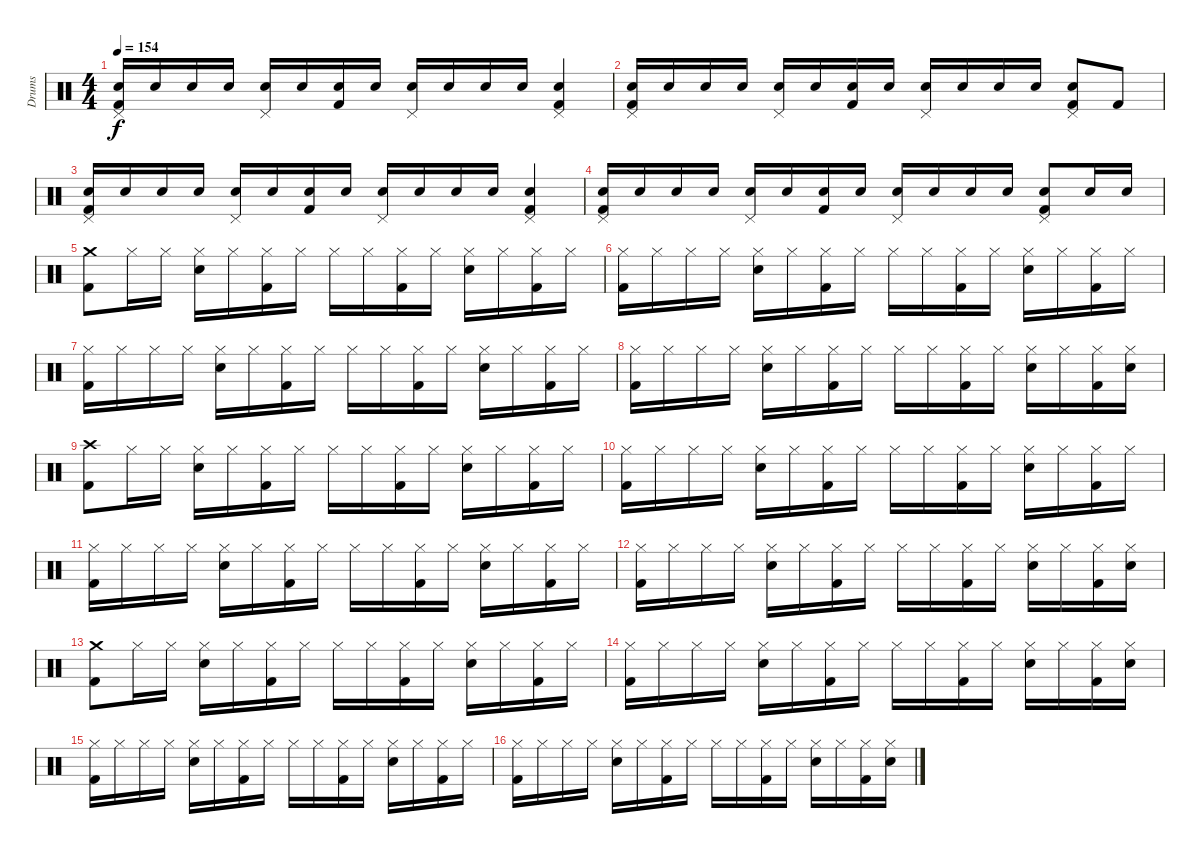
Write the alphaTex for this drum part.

\track ("Drums" "Drums") {instrument percussion}
\staff {score}
\articulation defaults
\ts (4 4)
\tempo 154
\clef neutral
\ks c
("Pedal Hi-Hat (hit)" "Electric Snare (hit)" "Kick (hit) 2").16{dy f} "Electric Snare (hit)".16 "Electric Snare (hit)".16 "Electric Snare (hit)".16 ("Pedal Hi-Hat (hit)" "Electric Snare (hit)").16 "Electric Snare (hit)".16 ("Kick (hit) 2" "Electric Snare (hit)").16 "Electric Snare (hit)".16 ("Pedal Hi-Hat (hit)" "Electric Snare (hit)").16 "Electric Snare (hit)".16 "Electric Snare (hit)".16 "Electric Snare (hit)".16 ("Kick (hit) 2" "Electric Snare (hit)" "Pedal Hi-Hat (hit)").4 |
("Pedal Hi-Hat (hit)" "Electric Snare (hit)" "Kick (hit) 2").16 "Electric Snare (hit)".16 "Electric Snare (hit)".16 "Electric Snare (hit)".16 ("Pedal Hi-Hat (hit)" "Electric Snare (hit)").16 "Electric Snare (hit)".16 ("Kick (hit) 2" "Electric Snare (hit)").16 "Electric Snare (hit)".16 ("Pedal Hi-Hat (hit)" "Electric Snare (hit)").16 "Electric Snare (hit)".16 "Electric Snare (hit)".16 "Electric Snare (hit)".16 ("Kick (hit) 2" "Electric Snare (hit)" "Pedal Hi-Hat (hit)").8 "Kick (hit) 2".8 |
("Pedal Hi-Hat (hit)" "Electric Snare (hit)" "Kick (hit) 2").16 "Electric Snare (hit)".16 "Electric Snare (hit)".16 "Electric Snare (hit)".16 ("Pedal Hi-Hat (hit)" "Electric Snare (hit)").16 "Electric Snare (hit)".16 ("Kick (hit) 2" "Electric Snare (hit)").16 "Electric Snare (hit)".16 ("Pedal Hi-Hat (hit)" "Electric Snare (hit)").16 "Electric Snare (hit)".16 "Electric Snare (hit)".16 "Electric Snare (hit)".16 ("Kick (hit) 2" "Electric Snare (hit)" "Pedal Hi-Hat (hit)").4 |
("Pedal Hi-Hat (hit)" "Electric Snare (hit)" "Kick (hit) 2").16 "Electric Snare (hit)".16 "Electric Snare (hit)".16 "Electric Snare (hit)".16 ("Pedal Hi-Hat (hit)" "Electric Snare (hit)").16 "Electric Snare (hit)".16 ("Kick (hit) 2" "Electric Snare (hit)").16 "Electric Snare (hit)".16 ("Pedal Hi-Hat (hit)" "Electric Snare (hit)").16 "Electric Snare (hit)".16 "Electric Snare (hit)".16 "Electric Snare (hit)".16 ("Kick (hit) 2" "Electric Snare (hit)" "Pedal Hi-Hat (hit)").8 "Electric Snare (hit)".16 "Electric Snare (hit)".16 |
("Crash medium (hit)" "Kick (hit) 2").8 "Hi-Hat (closed)".16 "Hi-Hat (closed)".16 ("Hi-Hat (closed)" "Electric Snare (hit)").16 "Hi-Hat (closed)".16 ("Kick (hit) 2" "Hi-Hat (closed)").16 "Hi-Hat (closed)".16 "Hi-Hat (closed)".16 "Hi-Hat (closed)".16 ("Kick (hit) 2" "Hi-Hat (closed)").16 "Hi-Hat (closed)".16 ("Electric Snare (hit)" "Hi-Hat (closed)").16 "Hi-Hat (closed)".16 ("Kick (hit) 2" "Hi-Hat (closed)").16 "Hi-Hat (closed)".16 |
("Hi-Hat (closed)" "Kick (hit) 2").16 "Hi-Hat (closed)".16 "Hi-Hat (closed)".16 "Hi-Hat (closed)".16 ("Hi-Hat (closed)" "Electric Snare (hit)").16 "Hi-Hat (closed)".16 ("Kick (hit) 2" "Hi-Hat (closed)").16 "Hi-Hat (closed)".16 "Hi-Hat (closed)".16 "Hi-Hat (closed)".16 ("Kick (hit) 2" "Hi-Hat (closed)").16 "Hi-Hat (closed)".16 ("Electric Snare (hit)" "Hi-Hat (closed)").16 "Hi-Hat (closed)".16 ("Kick (hit) 2" "Hi-Hat (closed)").16 "Hi-Hat (closed)".16 |
("Hi-Hat (closed)" "Kick (hit) 2").16 "Hi-Hat (closed)".16 "Hi-Hat (closed)".16 "Hi-Hat (closed)".16 ("Hi-Hat (closed)" "Electric Snare (hit)").16 "Hi-Hat (closed)".16 ("Kick (hit) 2" "Hi-Hat (closed)").16 "Hi-Hat (closed)".16 "Hi-Hat (closed)".16 "Hi-Hat (closed)".16 ("Kick (hit) 2" "Hi-Hat (closed)").16 "Hi-Hat (closed)".16 ("Electric Snare (hit)" "Hi-Hat (closed)").16 "Hi-Hat (closed)".16 ("Kick (hit) 2" "Hi-Hat (closed)").16 "Hi-Hat (closed)".16 |
("Hi-Hat (closed)" "Kick (hit) 2").16 "Hi-Hat (closed)".16 "Hi-Hat (closed)".16 "Hi-Hat (closed)".16 ("Hi-Hat (closed)" "Electric Snare (hit)").16 "Hi-Hat (closed)".16 ("Kick (hit) 2" "Hi-Hat (closed)").16 "Hi-Hat (closed)".16 "Hi-Hat (closed)".16 "Hi-Hat (closed)".16 ("Kick (hit) 2" "Hi-Hat (closed)").16 "Hi-Hat (closed)".16 ("Electric Snare (hit)" "Hi-Hat (closed)").16 "Hi-Hat (closed)".16 ("Kick (hit) 2" "Hi-Hat (closed)").16 ("Electric Snare (hit)" "Hi-Hat (closed)").16 |
("Crash high (hit)" "Kick (hit) 2").8 "Hi-Hat (closed)".16 "Hi-Hat (closed)".16 ("Hi-Hat (closed)" "Electric Snare (hit)").16 "Hi-Hat (closed)".16 ("Kick (hit) 2" "Hi-Hat (closed)").16 "Hi-Hat (closed)".16 "Hi-Hat (closed)".16 "Hi-Hat (closed)".16 ("Kick (hit) 2" "Hi-Hat (closed)").16 "Hi-Hat (closed)".16 ("Electric Snare (hit)" "Hi-Hat (closed)").16 "Hi-Hat (closed)".16 ("Kick (hit) 2" "Hi-Hat (closed)").16 "Hi-Hat (closed)".16 |
("Hi-Hat (closed)" "Kick (hit) 2").16 "Hi-Hat (closed)".16 "Hi-Hat (closed)".16 "Hi-Hat (closed)".16 ("Hi-Hat (closed)" "Electric Snare (hit)").16 "Hi-Hat (closed)".16 ("Kick (hit) 2" "Hi-Hat (closed)").16 "Hi-Hat (closed)".16 "Hi-Hat (closed)".16 "Hi-Hat (closed)".16 ("Kick (hit) 2" "Hi-Hat (closed)").16 "Hi-Hat (closed)".16 ("Electric Snare (hit)" "Hi-Hat (closed)").16 "Hi-Hat (closed)".16 ("Kick (hit) 2" "Hi-Hat (closed)").16 "Hi-Hat (closed)".16 |
("Hi-Hat (closed)" "Kick (hit) 2").16 "Hi-Hat (closed)".16 "Hi-Hat (closed)".16 "Hi-Hat (closed)".16 ("Hi-Hat (closed)" "Electric Snare (hit)").16 "Hi-Hat (closed)".16 ("Kick (hit) 2" "Hi-Hat (closed)").16 "Hi-Hat (closed)".16 "Hi-Hat (closed)".16 "Hi-Hat (closed)".16 ("Kick (hit) 2" "Hi-Hat (closed)").16 "Hi-Hat (closed)".16 ("Electric Snare (hit)" "Hi-Hat (closed)").16 "Hi-Hat (closed)".16 ("Kick (hit) 2" "Hi-Hat (closed)").16 "Hi-Hat (closed)".16 |
("Hi-Hat (closed)" "Kick (hit) 2").16 "Hi-Hat (closed)".16 "Hi-Hat (closed)".16 "Hi-Hat (closed)".16 ("Hi-Hat (closed)" "Electric Snare (hit)").16 "Hi-Hat (closed)".16 ("Kick (hit) 2" "Hi-Hat (closed)").16 "Hi-Hat (closed)".16 "Hi-Hat (closed)".16 "Hi-Hat (closed)".16 ("Kick (hit) 2" "Hi-Hat (closed)").16 "Hi-Hat (closed)".16 ("Electric Snare (hit)" "Hi-Hat (closed)").16 "Hi-Hat (closed)".16 ("Kick (hit) 2" "Hi-Hat (closed)").16 ("Electric Snare (hit)" "Hi-Hat (closed)").16 |
("Crash medium (hit)" "Kick (hit) 2").8 "Hi-Hat (closed)".16 "Hi-Hat (closed)".16 ("Hi-Hat (closed)" "Electric Snare (hit)").16 "Hi-Hat (closed)".16 ("Kick (hit) 2" "Hi-Hat (closed)").16 "Hi-Hat (closed)".16 "Hi-Hat (closed)".16 "Hi-Hat (closed)".16 ("Kick (hit) 2" "Hi-Hat (closed)").16 "Hi-Hat (closed)".16 ("Electric Snare (hit)" "Hi-Hat (closed)").16 "Hi-Hat (closed)".16 ("Kick (hit) 2" "Hi-Hat (closed)").16 "Hi-Hat (closed)".16 |
("Hi-Hat (closed)" "Kick (hit) 2").16 "Hi-Hat (closed)".16 "Hi-Hat (closed)".16 "Hi-Hat (closed)".16 ("Hi-Hat (closed)" "Electric Snare (hit)").16 "Hi-Hat (closed)".16 ("Kick (hit) 2" "Hi-Hat (closed)").16 "Hi-Hat (closed)".16 "Hi-Hat (closed)".16 "Hi-Hat (closed)".16 ("Kick (hit) 2" "Hi-Hat (closed)").16 "Hi-Hat (closed)".16 ("Electric Snare (hit)" "Hi-Hat (closed)").16 "Hi-Hat (closed)".16 ("Kick (hit) 2" "Hi-Hat (closed)").16 ("Electric Snare (hit)" "Hi-Hat (closed)").16 |
("Hi-Hat (closed)" "Kick (hit) 2").16 "Hi-Hat (closed)".16 "Hi-Hat (closed)".16 "Hi-Hat (closed)".16 ("Hi-Hat (closed)" "Electric Snare (hit)").16 "Hi-Hat (closed)".16 ("Kick (hit) 2" "Hi-Hat (closed)").16 "Hi-Hat (closed)".16 "Hi-Hat (closed)".16 "Hi-Hat (closed)".16 ("Kick (hit) 2" "Hi-Hat (closed)").16 "Hi-Hat (closed)".16 ("Electric Snare (hit)" "Hi-Hat (closed)").16 "Hi-Hat (closed)".16 ("Kick (hit) 2" "Hi-Hat (closed)").16 "Hi-Hat (closed)".16 |
("Hi-Hat (closed)" "Kick (hit) 2").16 "Hi-Hat (closed)".16 "Hi-Hat (closed)".16 "Hi-Hat (closed)".16 ("Hi-Hat (closed)" "Electric Snare (hit)").16 "Hi-Hat (closed)".16 ("Kick (hit) 2" "Hi-Hat (closed)").16 "Hi-Hat (closed)".16 "Hi-Hat (closed)".16 "Hi-Hat (closed)".16 ("Kick (hit) 2" "Hi-Hat (closed)").16 "Hi-Hat (closed)".16 ("Electric Snare (hit)" "Hi-Hat (closed)").16 "Hi-Hat (closed)".16 ("Kick (hit) 2" "Hi-Hat (closed)").16 ("Electric Snare (hit)" "Hi-Hat (closed)").16
